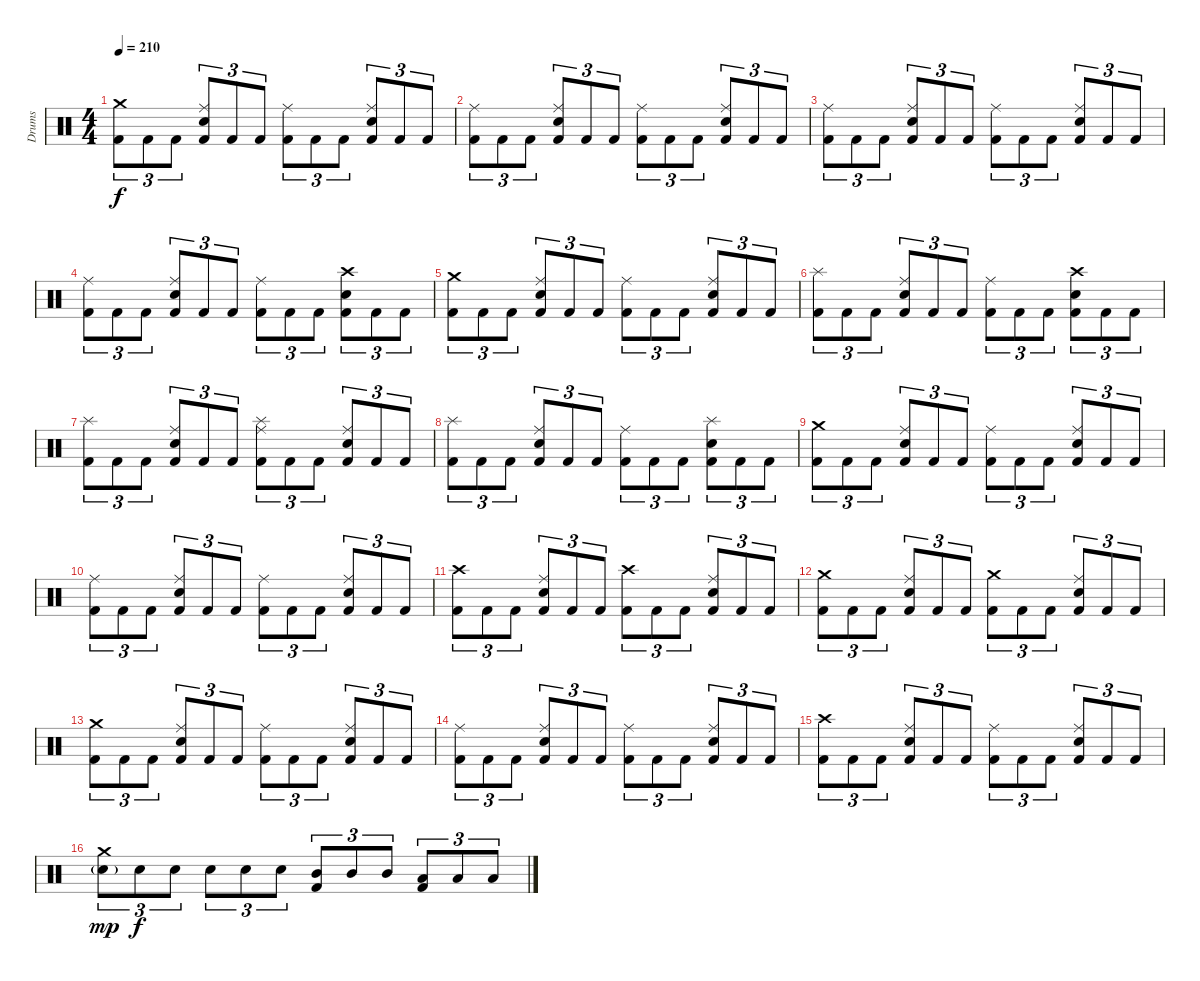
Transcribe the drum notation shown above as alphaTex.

\track ("Drums" "Drums") {instrument percussion}
\staff {score}
\articulation defaults
\ts (4 4)
\tempo 210
\clef neutral
\ks c
("Crash medium (hit)" "Kick (hit) 2").8{tu (3 2) dy f} "Kick (hit) 2".8{tu (3 2)} "Kick (hit) 2".8{tu (3 2)} ("Ride (middle)" "Electric Snare (hit)" "Kick (hit) 2").8{tu (3 2)} "Kick (hit) 2".8{tu (3 2)} "Kick (hit) 2".8{tu (3 2)} ("Ride (middle)" "Kick (hit) 2").8{tu (3 2)} "Kick (hit) 2".8{tu (3 2)} "Kick (hit) 2".8{tu (3 2)} ("Ride (middle)" "Electric Snare (hit)" "Kick (hit) 2").8{tu (3 2)} "Kick (hit) 2".8{tu (3 2)} "Kick (hit) 2".8{tu (3 2)} |
("Ride (middle)" "Kick (hit) 2").8{tu (3 2)} "Kick (hit) 2".8{tu (3 2)} "Kick (hit) 2".8{tu (3 2)} ("Ride (middle)" "Electric Snare (hit)" "Kick (hit) 2").8{tu (3 2)} "Kick (hit) 2".8{tu (3 2)} "Kick (hit) 2".8{tu (3 2)} ("Ride (middle)" "Kick (hit) 2").8{tu (3 2)} "Kick (hit) 2".8{tu (3 2)} "Kick (hit) 2".8{tu (3 2)} ("Ride (middle)" "Electric Snare (hit)" "Kick (hit) 2").8{tu (3 2)} "Kick (hit) 2".8{tu (3 2)} "Kick (hit) 2".8{tu (3 2)} |
("Ride (middle)" "Kick (hit) 2").8{tu (3 2)} "Kick (hit) 2".8{tu (3 2)} "Kick (hit) 2".8{tu (3 2)} ("Ride (middle)" "Electric Snare (hit)" "Kick (hit) 2").8{tu (3 2)} "Kick (hit) 2".8{tu (3 2)} "Kick (hit) 2".8{tu (3 2)} ("Ride (middle)" "Kick (hit) 2").8{tu (3 2)} "Kick (hit) 2".8{tu (3 2)} "Kick (hit) 2".8{tu (3 2)} ("Ride (middle)" "Electric Snare (hit)" "Kick (hit) 2").8{tu (3 2)} "Kick (hit) 2".8{tu (3 2)} "Kick (hit) 2".8{tu (3 2)} |
("Ride (middle)" "Kick (hit) 2").8{tu (3 2)} "Kick (hit) 2".8{tu (3 2)} "Kick (hit) 2".8{tu (3 2)} ("Ride (middle)" "Electric Snare (hit)" "Kick (hit) 2").8{tu (3 2)} "Kick (hit) 2".8{tu (3 2)} "Kick (hit) 2".8{tu (3 2)} ("Ride (middle)" "Kick (hit) 2").8{tu (3 2)} "Kick (hit) 2".8{tu (3 2)} "Kick (hit) 2".8{tu (3 2)} ("Crash high (hit)" "Electric Snare (hit)" "Kick (hit) 2").8{tu (3 2)} "Kick (hit) 2".8{tu (3 2)} "Kick (hit) 2".8{tu (3 2)} |
("Crash medium (hit)" "Kick (hit) 2").8{tu (3 2)} "Kick (hit) 2".8{tu (3 2)} "Kick (hit) 2".8{tu (3 2)} ("Ride (middle)" "Electric Snare (hit)" "Kick (hit) 2").8{tu (3 2)} "Kick (hit) 2".8{tu (3 2)} "Kick (hit) 2".8{tu (3 2)} ("Ride (middle)" "Kick (hit) 2").8{tu (3 2)} "Kick (hit) 2".8{tu (3 2)} "Kick (hit) 2".8{tu (3 2)} ("Ride (middle)" "Electric Snare (hit)" "Kick (hit) 2").8{tu (3 2)} "Kick (hit) 2".8{tu (3 2)} "Kick (hit) 2".8{tu (3 2)} |
("Splash (hit)" "Kick (hit) 2").8{tu (3 2)} "Kick (hit) 2".8{tu (3 2)} "Kick (hit) 2".8{tu (3 2)} ("Ride (middle)" "Electric Snare (hit)" "Kick (hit) 2").8{tu (3 2)} "Kick (hit) 2".8{tu (3 2)} "Kick (hit) 2".8{tu (3 2)} ("Ride (middle)" "Kick (hit) 2").8{tu (3 2)} "Kick (hit) 2".8{tu (3 2)} "Kick (hit) 2".8{tu (3 2)} ("Crash high (hit)" "Electric Snare (hit)" "Kick (hit) 2").8{tu (3 2)} "Kick (hit) 2".8{tu (3 2)} "Kick (hit) 2".8{tu (3 2)} |
("Splash (hit)" "Kick (hit) 2").8{tu (3 2)} "Kick (hit) 2".8{tu (3 2)} "Kick (hit) 2".8{tu (3 2)} ("Ride (middle)" "Electric Snare (hit)" "Kick (hit) 2").8{tu (3 2)} "Kick (hit) 2".8{tu (3 2)} "Kick (hit) 2".8{tu (3 2)} ("Splash (hit)" "Ride (middle)" "Kick (hit) 2").8{tu (3 2)} "Kick (hit) 2".8{tu (3 2)} "Kick (hit) 2".8{tu (3 2)} ("Ride (middle)" "Electric Snare (hit)" "Kick (hit) 2").8{tu (3 2)} "Kick (hit) 2".8{tu (3 2)} "Kick (hit) 2".8{tu (3 2)} |
("Splash (hit)" "Kick (hit) 2").8{tu (3 2)} "Kick (hit) 2".8{tu (3 2)} "Kick (hit) 2".8{tu (3 2)} ("Ride (middle)" "Electric Snare (hit)" "Kick (hit) 2").8{tu (3 2)} "Kick (hit) 2".8{tu (3 2)} "Kick (hit) 2".8{tu (3 2)} ("Ride (middle)" "Kick (hit) 2").8{tu (3 2)} "Kick (hit) 2".8{tu (3 2)} "Kick (hit) 2".8{tu (3 2)} ("Splash (hit)" "Electric Snare (hit)" "Kick (hit) 2").8{tu (3 2)} "Kick (hit) 2".8{tu (3 2)} "Kick (hit) 2".8{tu (3 2)} |
("Crash medium (hit)" "Kick (hit) 2").8{tu (3 2)} "Kick (hit) 2".8{tu (3 2)} "Kick (hit) 2".8{tu (3 2)} ("Ride (middle)" "Electric Snare (hit)" "Kick (hit) 2").8{tu (3 2)} "Kick (hit) 2".8{tu (3 2)} "Kick (hit) 2".8{tu (3 2)} ("Ride (middle)" "Kick (hit) 2").8{tu (3 2)} "Kick (hit) 2".8{tu (3 2)} "Kick (hit) 2".8{tu (3 2)} ("Ride (middle)" "Electric Snare (hit)" "Kick (hit) 2").8{tu (3 2)} "Kick (hit) 2".8{tu (3 2)} "Kick (hit) 2".8{tu (3 2)} |
("Ride (middle)" "Kick (hit) 2").8{tu (3 2)} "Kick (hit) 2".8{tu (3 2)} "Kick (hit) 2".8{tu (3 2)} ("Ride (middle)" "Electric Snare (hit)" "Kick (hit) 2").8{tu (3 2)} "Kick (hit) 2".8{tu (3 2)} "Kick (hit) 2".8{tu (3 2)} ("Ride (middle)" "Kick (hit) 2").8{tu (3 2)} "Kick (hit) 2".8{tu (3 2)} "Kick (hit) 2".8{tu (3 2)} ("Ride (middle)" "Electric Snare (hit)" "Kick (hit) 2").8{tu (3 2)} "Kick (hit) 2".8{tu (3 2)} "Kick (hit) 2".8{tu (3 2)} |
("Crash high (hit)" "Kick (hit) 2").8{tu (3 2)} "Kick (hit) 2".8{tu (3 2)} "Kick (hit) 2".8{tu (3 2)} ("Ride (middle)" "Electric Snare (hit)" "Kick (hit) 2").8{tu (3 2)} "Kick (hit) 2".8{tu (3 2)} "Kick (hit) 2".8{tu (3 2)} ("Crash high (hit)" "Kick (hit) 2").8{tu (3 2)} "Kick (hit) 2".8{tu (3 2)} "Kick (hit) 2".8{tu (3 2)} ("Ride (middle)" "Electric Snare (hit)" "Kick (hit) 2").8{tu (3 2)} "Kick (hit) 2".8{tu (3 2)} "Kick (hit) 2".8{tu (3 2)} |
("Crash medium (hit)" "Kick (hit) 2").8{tu (3 2)} "Kick (hit) 2".8{tu (3 2)} "Kick (hit) 2".8{tu (3 2)} ("Ride (middle)" "Electric Snare (hit)" "Kick (hit) 2").8{tu (3 2)} "Kick (hit) 2".8{tu (3 2)} "Kick (hit) 2".8{tu (3 2)} ("Crash medium (hit)" "Kick (hit) 2").8{tu (3 2)} "Kick (hit) 2".8{tu (3 2)} "Kick (hit) 2".8{tu (3 2)} ("Ride (middle)" "Electric Snare (hit)" "Kick (hit) 2").8{tu (3 2)} "Kick (hit) 2".8{tu (3 2)} "Kick (hit) 2".8{tu (3 2)} |
("Crash medium (hit)" "Kick (hit) 2").8{tu (3 2)} "Kick (hit) 2".8{tu (3 2)} "Kick (hit) 2".8{tu (3 2)} ("Ride (middle)" "Electric Snare (hit)" "Kick (hit) 2").8{tu (3 2)} "Kick (hit) 2".8{tu (3 2)} "Kick (hit) 2".8{tu (3 2)} ("Ride (middle)" "Kick (hit) 2").8{tu (3 2)} "Kick (hit) 2".8{tu (3 2)} "Kick (hit) 2".8{tu (3 2)} ("Ride (middle)" "Electric Snare (hit)" "Kick (hit) 2").8{tu (3 2)} "Kick (hit) 2".8{tu (3 2)} "Kick (hit) 2".8{tu (3 2)} |
("Ride (middle)" "Kick (hit) 2").8{tu (3 2)} "Kick (hit) 2".8{tu (3 2)} "Kick (hit) 2".8{tu (3 2)} ("Ride (middle)" "Electric Snare (hit)" "Kick (hit) 2").8{tu (3 2)} "Kick (hit) 2".8{tu (3 2)} "Kick (hit) 2".8{tu (3 2)} ("Ride (middle)" "Kick (hit) 2").8{tu (3 2)} "Kick (hit) 2".8{tu (3 2)} "Kick (hit) 2".8{tu (3 2)} ("Ride (middle)" "Electric Snare (hit)" "Kick (hit) 2").8{tu (3 2)} "Kick (hit) 2".8{tu (3 2)} "Kick (hit) 2".8{tu (3 2)} |
("Crash high (hit)" "Kick (hit) 2").8{tu (3 2)} "Kick (hit) 2".8{tu (3 2)} "Kick (hit) 2".8{tu (3 2)} ("Ride (middle)" "Electric Snare (hit)" "Kick (hit) 2").8{tu (3 2)} "Kick (hit) 2".8{tu (3 2)} "Kick (hit) 2".8{tu (3 2)} ("Ride (middle)" "Kick (hit) 2").8{tu (3 2)} "Kick (hit) 2".8{tu (3 2)} "Kick (hit) 2".8{tu (3 2)} ("Ride (middle)" "Electric Snare (hit)" "Kick (hit) 2").8{tu (3 2)} "Kick (hit) 2".8{tu (3 2)} "Kick (hit) 2".8{tu (3 2)} |
("Crash medium (hit)" "Electric Snare (hit)"{g}).8{tu (3 2) dy mp} "Electric Snare (hit)".8{tu (3 2) dy f} "Electric Snare (hit)".8{tu (3 2)} "Electric Snare (hit)".8{tu (3 2)} "Electric Snare (hit)".8{tu (3 2)} "Electric Snare (hit)".8{tu (3 2)} ("Mid Tom (hit)" "Kick (hit) 2").8{tu (3 2)} "Mid Tom (hit)".8{tu (3 2)} "Mid Tom (hit)".8{tu (3 2)} ("Low Tom (hit)" "Kick (hit) 2").8{tu (3 2)} "Low Tom (hit)".8{tu (3 2)} "Low Tom (hit)".8{tu (3 2)}
